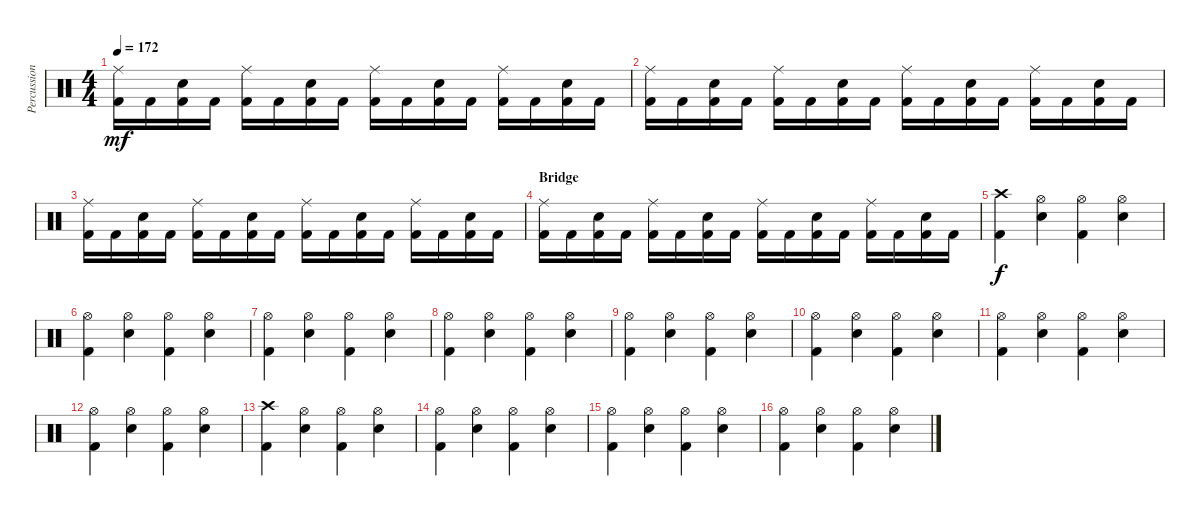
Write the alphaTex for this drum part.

\track ("Percussion" "Percussion") {instrument percussion}
\staff {score}
\articulation defaults
\ts (4 4)
\tempo 172
\clef neutral
\ks c
("Ride (middle)" "Kick (hit) 2").16{dy mf} "Kick (hit) 2".16 ("Electric Snare (hit)" "Kick (hit) 2").16 "Kick (hit) 2".16 ("Ride (middle)" "Kick (hit) 2").16 "Kick (hit) 2".16 ("Electric Snare (hit)" "Kick (hit) 2").16 "Kick (hit) 2".16 ("Ride (middle)" "Kick (hit) 2").16 "Kick (hit) 2".16 ("Electric Snare (hit)" "Kick (hit) 2").16 "Kick (hit) 2".16 ("Ride (middle)" "Kick (hit) 2").16 "Kick (hit) 2".16 ("Electric Snare (hit)" "Kick (hit) 2").16 "Kick (hit) 2".16 |
("Ride (middle)" "Kick (hit) 2").16 "Kick (hit) 2".16 ("Electric Snare (hit)" "Kick (hit) 2").16 "Kick (hit) 2".16 ("Ride (middle)" "Kick (hit) 2").16 "Kick (hit) 2".16 ("Electric Snare (hit)" "Kick (hit) 2").16 "Kick (hit) 2".16 ("Ride (middle)" "Kick (hit) 2").16 "Kick (hit) 2".16 ("Electric Snare (hit)" "Kick (hit) 2").16 "Kick (hit) 2".16 ("Ride (middle)" "Kick (hit) 2").16 "Kick (hit) 2".16 ("Electric Snare (hit)" "Kick (hit) 2").16 "Kick (hit) 2".16 |
("Ride (middle)" "Kick (hit) 2").16 "Kick (hit) 2".16 ("Electric Snare (hit)" "Kick (hit) 2").16 "Kick (hit) 2".16 ("Ride (middle)" "Kick (hit) 2").16 "Kick (hit) 2".16 ("Electric Snare (hit)" "Kick (hit) 2").16 "Kick (hit) 2".16 ("Ride (middle)" "Kick (hit) 2").16 "Kick (hit) 2".16 ("Electric Snare (hit)" "Kick (hit) 2").16 "Kick (hit) 2".16 ("Ride (middle)" "Kick (hit) 2").16 "Kick (hit) 2".16 ("Electric Snare (hit)" "Kick (hit) 2").16 "Kick (hit) 2".16 |
\section ("" "Bridge")
("Ride (middle)" "Kick (hit) 2").16 "Kick (hit) 2".16 ("Electric Snare (hit)" "Kick (hit) 2").16 "Kick (hit) 2".16 ("Ride (middle)" "Kick (hit) 2").16 "Kick (hit) 2".16 ("Electric Snare (hit)" "Kick (hit) 2").16 "Kick (hit) 2".16 ("Ride (middle)" "Kick (hit) 2").16 "Kick (hit) 2".16 ("Electric Snare (hit)" "Kick (hit) 2").16 "Kick (hit) 2".16 ("Ride (middle)" "Kick (hit) 2").16 "Kick (hit) 2".16 ("Electric Snare (hit)" "Kick (hit) 2").16 "Kick (hit) 2".16 |
("Crash high (hit)" "Kick (hit) 2").4{dy f} ("Hi-Hat (open)" "Electric Snare (hit)").4 ("Hi-Hat (open)" "Kick (hit) 2").4 ("Hi-Hat (open)" "Electric Snare (hit)").4 |
("Hi-Hat (open)" "Kick (hit) 2").4 ("Hi-Hat (open)" "Electric Snare (hit)").4 ("Hi-Hat (open)" "Kick (hit) 2").4 ("Hi-Hat (open)" "Electric Snare (hit)").4 |
("Hi-Hat (open)" "Kick (hit) 2").4 ("Hi-Hat (open)" "Electric Snare (hit)").4 ("Hi-Hat (open)" "Kick (hit) 2").4 ("Hi-Hat (open)" "Electric Snare (hit)").4 |
("Hi-Hat (open)" "Kick (hit) 2").4 ("Hi-Hat (open)" "Electric Snare (hit)").4 ("Hi-Hat (open)" "Kick (hit) 2").4 ("Hi-Hat (open)" "Electric Snare (hit)").4 |
("Hi-Hat (open)" "Kick (hit) 2").4 ("Hi-Hat (open)" "Electric Snare (hit)").4 ("Hi-Hat (open)" "Kick (hit) 2").4 ("Hi-Hat (open)" "Electric Snare (hit)").4 |
("Hi-Hat (open)" "Kick (hit) 2").4 ("Hi-Hat (open)" "Electric Snare (hit)").4 ("Hi-Hat (open)" "Kick (hit) 2").4 ("Hi-Hat (open)" "Electric Snare (hit)").4 |
("Hi-Hat (open)" "Kick (hit) 2").4 ("Hi-Hat (open)" "Electric Snare (hit)").4 ("Hi-Hat (open)" "Kick (hit) 2").4 ("Hi-Hat (open)" "Electric Snare (hit)").4 |
("Hi-Hat (open)" "Kick (hit) 2").4 ("Hi-Hat (open)" "Electric Snare (hit)").4 ("Hi-Hat (open)" "Kick (hit) 2").4 ("Hi-Hat (open)" "Electric Snare (hit)").4 |
("Crash high (hit)" "Kick (hit) 2").4 ("Hi-Hat (open)" "Electric Snare (hit)").4 ("Hi-Hat (open)" "Kick (hit) 2").4 ("Hi-Hat (open)" "Electric Snare (hit)").4 |
("Hi-Hat (open)" "Kick (hit) 2").4 ("Hi-Hat (open)" "Electric Snare (hit)").4 ("Hi-Hat (open)" "Kick (hit) 2").4 ("Hi-Hat (open)" "Electric Snare (hit)").4 |
("Hi-Hat (open)" "Kick (hit) 2").4 ("Hi-Hat (open)" "Electric Snare (hit)").4 ("Hi-Hat (open)" "Kick (hit) 2").4 ("Hi-Hat (open)" "Electric Snare (hit)").4 |
("Hi-Hat (open)" "Kick (hit) 2").4 ("Hi-Hat (open)" "Electric Snare (hit)").4 ("Hi-Hat (open)" "Kick (hit) 2").4 ("Hi-Hat (open)" "Electric Snare (hit)").4
